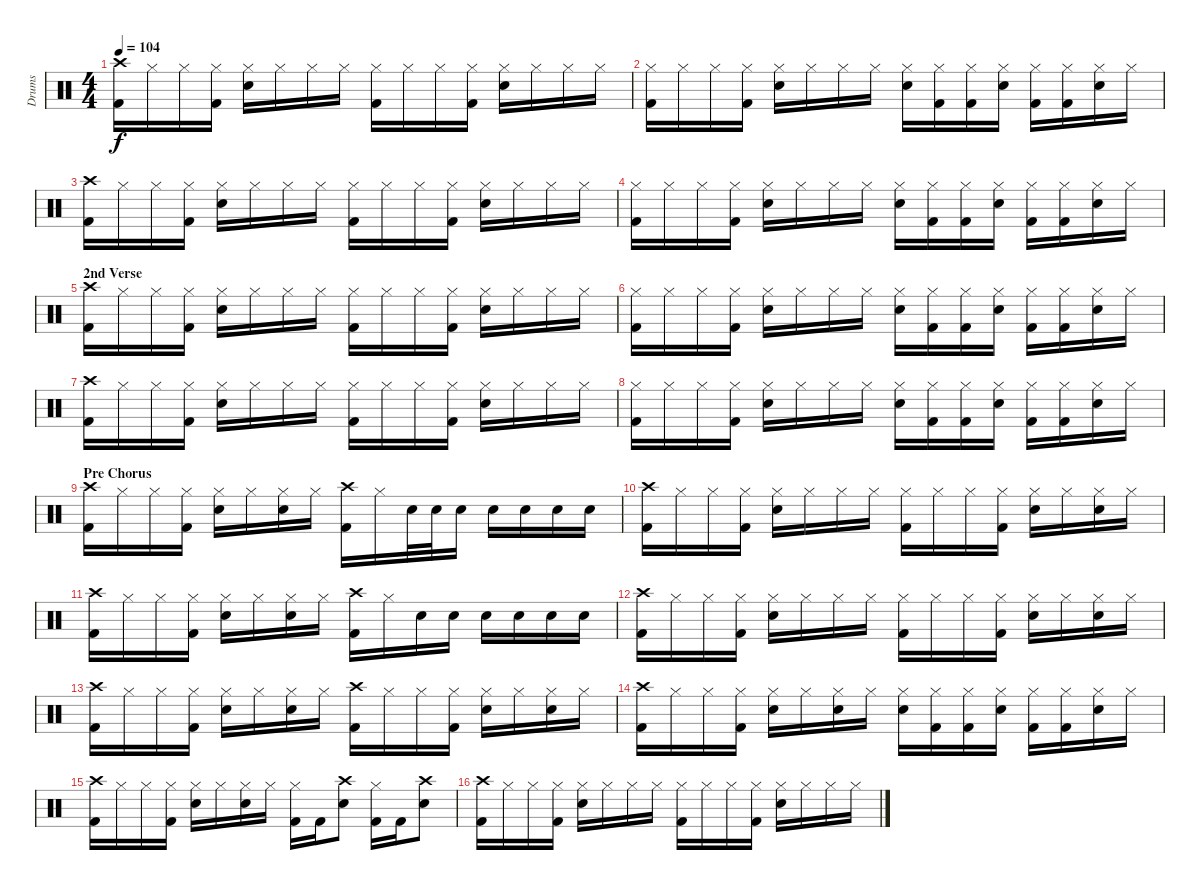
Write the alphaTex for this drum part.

\track ("Drums" "Drums") {instrument percussion}
\staff {score}
\articulation defaults
\ts (4 4)
\tempo 104
\clef neutral
\ks c
("Crash high (hit)" "Kick (hit) 2").16{dy f} "Hi-Hat (closed)".16 "Hi-Hat (closed)".16 ("Hi-Hat (closed)" "Kick (hit) 2").16 ("Hi-Hat (closed)" "Snare (hit) 2").16 "Hi-Hat (closed)".16 "Hi-Hat (closed)".16 "Hi-Hat (closed)".16 ("Hi-Hat (closed)" "Kick (hit) 2").16 "Hi-Hat (closed)".16 "Hi-Hat (closed)".16 ("Hi-Hat (closed)" "Kick (hit) 2").16 ("Hi-Hat (closed)" "Snare (hit) 2").16 "Hi-Hat (closed)".16 "Hi-Hat (closed)".16 "Hi-Hat (closed)".16 |
("Hi-Hat (closed)" "Kick (hit) 2").16 "Hi-Hat (closed)".16 "Hi-Hat (closed)".16 ("Hi-Hat (closed)" "Kick (hit) 2").16 ("Hi-Hat (closed)" "Snare (hit) 2").16 "Hi-Hat (closed)".16 "Hi-Hat (closed)".16 "Hi-Hat (closed)".16 ("Hi-Hat (closed)" "Snare (hit) 2").16 ("Hi-Hat (closed)" "Kick (hit) 2").16 ("Hi-Hat (closed)" "Kick (hit) 2").16 ("Hi-Hat (closed)" "Snare (hit) 2").16 ("Hi-Hat (closed)" "Kick (hit) 2").16 ("Hi-Hat (closed)" "Kick (hit) 2").16 ("Hi-Hat (closed)" "Snare (hit) 2").16 "Hi-Hat (closed)".16 |
("Crash high (hit)" "Kick (hit) 2").16 "Hi-Hat (closed)".16 "Hi-Hat (closed)".16 ("Hi-Hat (closed)" "Kick (hit) 2").16 ("Hi-Hat (closed)" "Snare (hit) 2").16 "Hi-Hat (closed)".16 "Hi-Hat (closed)".16 "Hi-Hat (closed)".16 ("Hi-Hat (closed)" "Kick (hit) 2").16 "Hi-Hat (closed)".16 "Hi-Hat (closed)".16 ("Hi-Hat (closed)" "Kick (hit) 2").16 ("Hi-Hat (closed)" "Snare (hit) 2").16 "Hi-Hat (closed)".16 "Hi-Hat (closed)".16 "Hi-Hat (closed)".16 |
("Hi-Hat (closed)" "Kick (hit) 2").16 "Hi-Hat (closed)".16 "Hi-Hat (closed)".16 ("Hi-Hat (closed)" "Kick (hit) 2").16 ("Hi-Hat (closed)" "Snare (hit) 2").16 "Hi-Hat (closed)".16 "Hi-Hat (closed)".16 "Hi-Hat (closed)".16 ("Hi-Hat (closed)" "Snare (hit) 2").16 ("Hi-Hat (closed)" "Kick (hit) 2").16 ("Hi-Hat (closed)" "Kick (hit) 2").16 ("Hi-Hat (closed)" "Snare (hit) 2").16 ("Hi-Hat (closed)" "Kick (hit) 2").16 ("Hi-Hat (closed)" "Kick (hit) 2").16 ("Hi-Hat (closed)" "Snare (hit) 2").16 "Hi-Hat (closed)".16 |
\section ("" "2nd Verse")
("Crash high (hit)" "Kick (hit) 2").16 "Hi-Hat (closed)".16 "Hi-Hat (closed)".16 ("Hi-Hat (closed)" "Kick (hit) 2").16 ("Hi-Hat (closed)" "Snare (hit) 2").16 "Hi-Hat (closed)".16 "Hi-Hat (closed)".16 "Hi-Hat (closed)".16 ("Hi-Hat (closed)" "Kick (hit) 2").16 "Hi-Hat (closed)".16 "Hi-Hat (closed)".16 ("Hi-Hat (closed)" "Kick (hit) 2").16 ("Hi-Hat (closed)" "Snare (hit) 2").16 "Hi-Hat (closed)".16 "Hi-Hat (closed)".16 "Hi-Hat (closed)".16 |
("Hi-Hat (closed)" "Kick (hit) 2").16 "Hi-Hat (closed)".16 "Hi-Hat (closed)".16 ("Hi-Hat (closed)" "Kick (hit) 2").16 ("Hi-Hat (closed)" "Snare (hit) 2").16 "Hi-Hat (closed)".16 "Hi-Hat (closed)".16 "Hi-Hat (closed)".16 ("Hi-Hat (closed)" "Snare (hit) 2").16 ("Hi-Hat (closed)" "Kick (hit) 2").16 ("Hi-Hat (closed)" "Kick (hit) 2").16 ("Hi-Hat (closed)" "Snare (hit) 2").16 ("Hi-Hat (closed)" "Kick (hit) 2").16 ("Hi-Hat (closed)" "Kick (hit) 2").16 ("Hi-Hat (closed)" "Snare (hit) 2").16 "Hi-Hat (closed)".16 |
("Crash high (hit)" "Kick (hit) 2").16 "Hi-Hat (closed)".16 "Hi-Hat (closed)".16 ("Hi-Hat (closed)" "Kick (hit) 2").16 ("Hi-Hat (closed)" "Snare (hit) 2").16 "Hi-Hat (closed)".16 "Hi-Hat (closed)".16 "Hi-Hat (closed)".16 ("Hi-Hat (closed)" "Kick (hit) 2").16 "Hi-Hat (closed)".16 "Hi-Hat (closed)".16 ("Hi-Hat (closed)" "Kick (hit) 2").16 ("Hi-Hat (closed)" "Snare (hit) 2").16 "Hi-Hat (closed)".16 "Hi-Hat (closed)".16 "Hi-Hat (closed)".16 |
("Hi-Hat (closed)" "Kick (hit) 2").16 "Hi-Hat (closed)".16 "Hi-Hat (closed)".16 ("Hi-Hat (closed)" "Kick (hit) 2").16 ("Hi-Hat (closed)" "Snare (hit) 2").16 "Hi-Hat (closed)".16 "Hi-Hat (closed)".16 "Hi-Hat (closed)".16 ("Hi-Hat (closed)" "Snare (hit) 2").16 ("Hi-Hat (closed)" "Kick (hit) 2").16 ("Hi-Hat (closed)" "Kick (hit) 2").16 ("Hi-Hat (closed)" "Snare (hit) 2").16 ("Hi-Hat (closed)" "Kick (hit) 2").16 ("Hi-Hat (closed)" "Kick (hit) 2").16 ("Hi-Hat (closed)" "Snare (hit) 2").16 "Hi-Hat (closed)".16 |
\section ("" "Pre Chorus")
("Crash high (hit)" "Kick (hit) 2").16 "Hi-Hat (closed)".16 "Hi-Hat (closed)".16 ("Hi-Hat (closed)" "Kick (hit) 2").16 ("Hi-Hat (closed)" "Snare (hit) 2").16 "Hi-Hat (closed)".16 ("Hi-Hat (closed)" "Snare (hit) 2").16 "Hi-Hat (closed)".16 ("Crash high (hit)" "Kick (hit) 2").16 "Hi-Hat (closed)".16 "Snare (hit) 2".32 "Snare (hit) 2".32 "Snare (hit) 2".16 "Snare (hit) 2".16 "Snare (hit) 2".16 "Snare (hit) 2".16 "Snare (hit) 2".16 |
("Crash high (hit)" "Kick (hit) 2").16 "Hi-Hat (closed)".16 "Hi-Hat (closed)".16 ("Hi-Hat (closed)" "Kick (hit) 2").16 ("Hi-Hat (closed)" "Snare (hit) 2").16 "Hi-Hat (closed)".16 "Hi-Hat (closed)".16 "Hi-Hat (closed)".16 ("Hi-Hat (closed)" "Kick (hit) 2").16 "Hi-Hat (closed)".16 "Hi-Hat (closed)".16 ("Hi-Hat (closed)" "Kick (hit) 2").16 ("Hi-Hat (closed)" "Snare (hit) 2").16 "Hi-Hat (closed)".16 ("Hi-Hat (closed)" "Snare (hit) 2").16 "Hi-Hat (closed)".16 |
("Crash high (hit)" "Kick (hit) 2").16 "Hi-Hat (closed)".16 "Hi-Hat (closed)".16 ("Hi-Hat (closed)" "Kick (hit) 2").16 ("Hi-Hat (closed)" "Snare (hit) 2").16 "Hi-Hat (closed)".16 ("Hi-Hat (closed)" "Snare (hit) 2").16 "Hi-Hat (closed)".16 ("Crash high (hit)" "Kick (hit) 2").16 "Hi-Hat (closed)".16 "Snare (hit) 2".16 "Snare (hit) 2".16 "Snare (hit) 2".16 "Snare (hit) 2".16 "Snare (hit) 2".16 "Snare (hit) 2".16 |
("Crash high (hit)" "Kick (hit) 2").16 "Hi-Hat (closed)".16 "Hi-Hat (closed)".16 ("Hi-Hat (closed)" "Kick (hit) 2").16 ("Hi-Hat (closed)" "Snare (hit) 2").16 "Hi-Hat (closed)".16 "Hi-Hat (closed)".16 "Hi-Hat (closed)".16 ("Hi-Hat (closed)" "Kick (hit) 2").16 "Hi-Hat (closed)".16 "Hi-Hat (closed)".16 ("Hi-Hat (closed)" "Kick (hit) 2").16 ("Hi-Hat (closed)" "Snare (hit) 2").16 "Hi-Hat (closed)".16 ("Hi-Hat (closed)" "Snare (hit) 2").16 "Hi-Hat (closed)".16 |
("Crash high (hit)" "Kick (hit) 2").16 "Hi-Hat (closed)".16 "Hi-Hat (closed)".16 ("Hi-Hat (closed)" "Kick (hit) 2").16 ("Hi-Hat (closed)" "Snare (hit) 2").16 "Hi-Hat (closed)".16 ("Hi-Hat (closed)" "Snare (hit) 2").16 "Hi-Hat (closed)".16 ("Crash high (hit)" "Kick (hit) 2").16 "Hi-Hat (closed)".16 "Hi-Hat (closed)".16 ("Hi-Hat (closed)" "Kick (hit) 2").16 ("Hi-Hat (closed)" "Snare (hit) 2").16 "Hi-Hat (closed)".16 ("Hi-Hat (closed)" "Snare (hit) 2").16 "Hi-Hat (closed)".16 |
("Crash high (hit)" "Kick (hit) 2").16 "Hi-Hat (closed)".16 "Hi-Hat (closed)".16 ("Hi-Hat (closed)" "Kick (hit) 2").16 ("Hi-Hat (closed)" "Snare (hit) 2").16 "Hi-Hat (closed)".16 ("Hi-Hat (closed)" "Snare (hit) 2").16 "Hi-Hat (closed)".16 ("Hi-Hat (closed)" "Snare (hit) 2").16 ("Hi-Hat (closed)" "Kick (hit) 2").16 ("Hi-Hat (closed)" "Kick (hit) 2").16 ("Hi-Hat (closed)" "Snare (hit) 2").16 ("Hi-Hat (closed)" "Kick (hit) 2").16 ("Hi-Hat (closed)" "Kick (hit) 2").16 ("Hi-Hat (closed)" "Snare (hit) 2").16 "Hi-Hat (closed)".16 |
("Crash high (hit)" "Kick (hit) 2").16 "Hi-Hat (closed)".16 "Hi-Hat (closed)".16 ("Hi-Hat (closed)" "Kick (hit) 2").16 ("Hi-Hat (closed)" "Snare (hit) 2").16 "Hi-Hat (closed)".16 ("Hi-Hat (closed)" "Snare (hit) 2").16 "Hi-Hat (closed)".16 ("Hi-Hat (closed)" "Kick (hit) 2").16 "Kick (hit) 2".16 ("Crash high (hit)" "Snare (hit) 2").8 ("Hi-Hat (closed)" "Kick (hit) 2").16 "Kick (hit) 2".16 ("Crash high (hit)" "Snare (hit) 2").8 |
("Crash high (hit)" "Kick (hit) 2").16 "Hi-Hat (closed)".16 "Hi-Hat (closed)".16 ("Hi-Hat (closed)" "Kick (hit) 2").16 ("Hi-Hat (closed)" "Snare (hit) 2").16 "Hi-Hat (closed)".16 "Hi-Hat (closed)".16 "Hi-Hat (closed)".16 ("Hi-Hat (closed)" "Kick (hit) 2").16 "Hi-Hat (closed)".16 "Hi-Hat (closed)".16 ("Hi-Hat (closed)" "Kick (hit) 2").16 ("Hi-Hat (closed)" "Snare (hit) 2").16 "Hi-Hat (closed)".16 "Hi-Hat (closed)".16 "Hi-Hat (closed)".16
